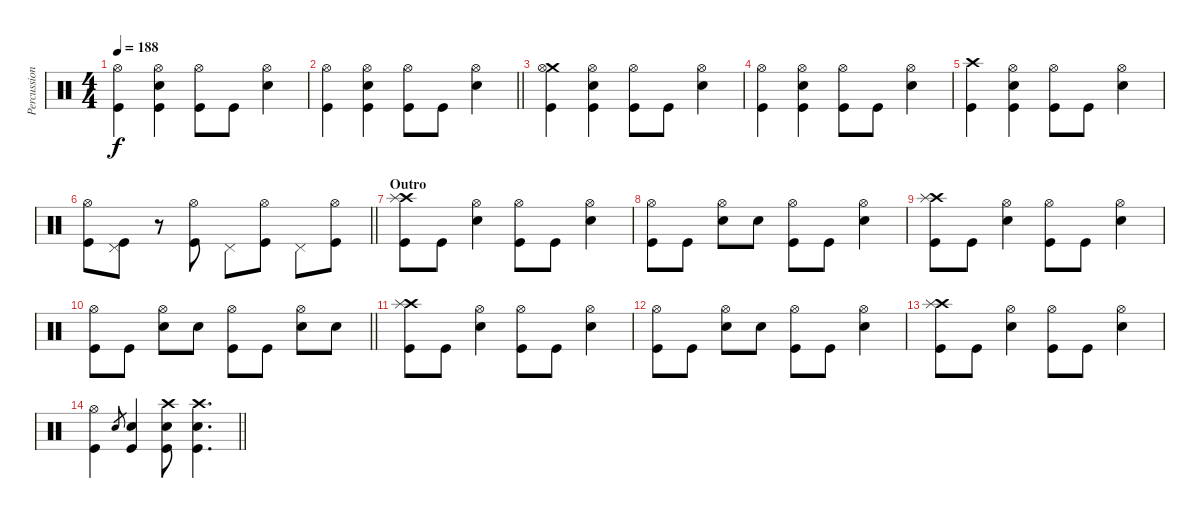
\track ("Percussion" "Percussion") {instrument percussion}
\staff {score}
\articulation defaults
\ts (4 4)
\tempo 188
\clef neutral
\ks c
("Hi-Hat (open)" "Kick (hit)").4{dy f} ("Hi-Hat (open)" "Electric Snare (hit)" "Kick (hit)").4 ("Hi-Hat (open)" "Kick (hit)").8 "Kick (hit)".8 ("Hi-Hat (open)" "Electric Snare (hit)").4 |
\barLineRight lightlight
("Hi-Hat (open)" "Kick (hit)").4 ("Hi-Hat (open)" "Electric Snare (hit)" "Kick (hit)").4 ("Hi-Hat (open)" "Kick (hit)").8 "Kick (hit)".8 ("Hi-Hat (open)" "Electric Snare (hit)").4 |
("Crash medium (hit)" "Hi-Hat (open)" "Kick (hit)").4 ("Hi-Hat (open)" "Electric Snare (hit)" "Kick (hit)").4 ("Hi-Hat (open)" "Kick (hit)").8 "Kick (hit)".8 ("Hi-Hat (open)" "Electric Snare (hit)").4 |
("Hi-Hat (open)" "Kick (hit)").4 ("Hi-Hat (open)" "Electric Snare (hit)" "Kick (hit)").4 ("Hi-Hat (open)" "Kick (hit)").8 "Kick (hit)".8 ("Hi-Hat (open)" "Electric Snare (hit)").4 |
("Crash high (hit)" "Kick (hit)").4 ("Hi-Hat (open)" "Electric Snare (hit)" "Kick (hit)").4 ("Hi-Hat (open)" "Kick (hit)").8 "Kick (hit)".8 ("Hi-Hat (open)" "Electric Snare (hit)").4 |
\barLineRight lightlight
("Hi-Hat (open)" "Kick (hit)").8 ("Pedal Hi-Hat (hit)" "Kick (hit)").8 r.8 ("Hi-Hat (open)" "Kick (hit)").8 "Pedal Hi-Hat (hit)".8 ("Hi-Hat (open)" "Kick (hit)").8 "Pedal Hi-Hat (hit)".8 ("Hi-Hat (open)" "Kick (hit)").8 |
\section ("" "Outro")
("Crash high (hit)" "Splash (hit)" "Kick (hit)").8 "Kick (hit)".8 ("Hi-Hat (open)" "Electric Snare (hit)").4 ("Hi-Hat (open)" "Kick (hit)").8 "Kick (hit)".8 ("Hi-Hat (open)" "Electric Snare (hit)").4 |
("Hi-Hat (open)" "Kick (hit)").8 "Kick (hit)".8 ("Hi-Hat (open)" "Electric Snare (hit)").8 "Electric Snare (hit)".8 ("Hi-Hat (open)" "Kick (hit)").8 "Kick (hit)".8 ("Hi-Hat (open)" "Electric Snare (hit)").4 |
("Crash high (hit)" "Splash (hit)" "Kick (hit)").8 "Kick (hit)".8 ("Hi-Hat (open)" "Electric Snare (hit)").4 ("Hi-Hat (open)" "Kick (hit)").8 "Kick (hit)".8 ("Hi-Hat (open)" "Electric Snare (hit)").4 |
\barLineRight lightlight
("Hi-Hat (open)" "Kick (hit)").8 "Kick (hit)".8 ("Hi-Hat (open)" "Electric Snare (hit)").8 "Electric Snare (hit)".8 ("Hi-Hat (open)" "Kick (hit)").8 "Kick (hit)".8 ("Hi-Hat (open)" "Electric Snare (hit)").8 "Electric Snare (hit)".8 |
("Crash high (hit)" "Splash (hit)" "Kick (hit)").8 "Kick (hit)".8 ("Hi-Hat (open)" "Electric Snare (hit)").4 ("Hi-Hat (open)" "Kick (hit)").8 "Kick (hit)".8 ("Hi-Hat (open)" "Electric Snare (hit)").4 |
("Hi-Hat (open)" "Kick (hit)").8 "Kick (hit)".8 ("Hi-Hat (open)" "Electric Snare (hit)").8 "Electric Snare (hit)".8 ("Hi-Hat (open)" "Kick (hit)").8 "Kick (hit)".8 ("Hi-Hat (open)" "Electric Snare (hit)").4 |
("Crash high (hit)" "Splash (hit)" "Kick (hit)").8 "Kick (hit)".8 ("Hi-Hat (open)" "Electric Snare (hit)").4 ("Hi-Hat (open)" "Kick (hit)").8 "Kick (hit)".8 ("Hi-Hat (open)" "Electric Snare (hit)").4 |
\barLineRight lightlight
("Hi-Hat (open)" "Kick (hit)").4 "Electric Snare (hit)".8{gr} ("Electric Snare (hit)" "Kick (hit)").4 ("Crash high (hit)" "Electric Snare (hit)" "Kick (hit)").8 ("Crash high (hit)" "Electric Snare (hit)" "Kick (hit)").4{d}
